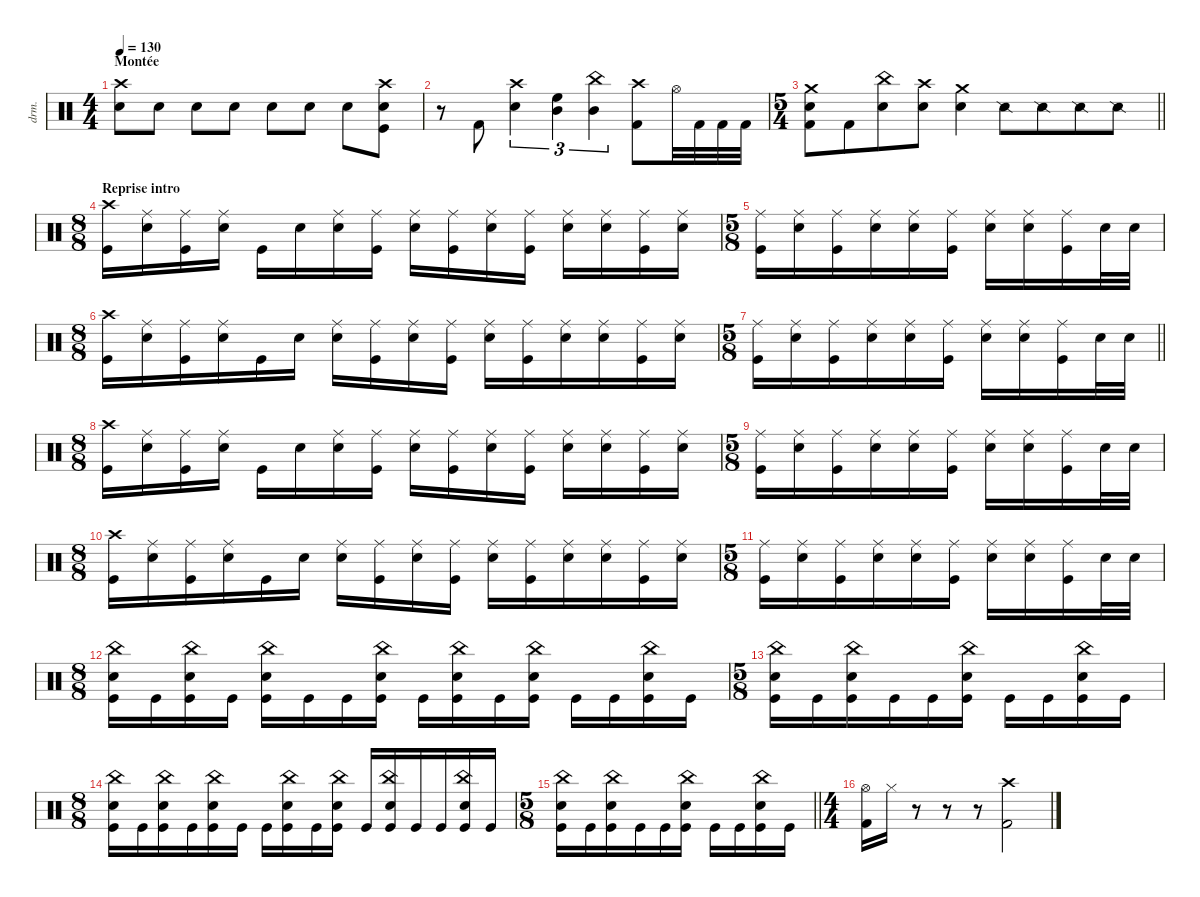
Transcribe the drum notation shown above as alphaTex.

\defaultSystemsLayout 4
\hideDynamics
\bracketExtendMode nobrackets
\track ("Manouche" "drm.") {instrument percussion}
\staff {score}
\articulation defaults
\ts (4 4)
\section ("" "Montée")
\tempo 130
\clef neutral
\ks c
("Crash high (hit)" "Snare (hit) 2").8{dy mf beam Down} "Snare (hit) 2".8{dy mp beam Down} "Snare (hit) 2".8{beam Down} "Snare (hit) 2".8{beam Down} "Snare (hit) 2".8{dy mf beam Down} "Snare (hit) 2".8{beam Down} "Snare (hit) 2".8{dy f beam Down} ("Crash high (hit)" "Kick (hit)" "Snare (hit) 2").8{beam Down} |
r.8{beam Down} "Kick (hit) 2".8{dy ff beam Up} ("Snare (hit) 2" "Crash high (hit)").4{tu (3 2) beam Down} ("Mid Tom (hit)" "High Floor Tom (hit)").4{tu (3 2) beam Down} ("Mid Tom (hit)" "China (hit)").4{tu (3 2) beam Down} ("Crash high (hit)" "Kick (hit) 2").8{dy f beam Down} "Hi-Hat (open)".32{dy ff beam Down} "Kick (hit) 2".32{dy f beam Down} "Kick (hit) 2".32{beam Down} "Kick (hit) 2".32{beam Down} |
\ts (5 4)
\beaming (8 6 4)
\barLineRight lightlight
("Kick (hit) 2" "Snare (hit) 2" "Crash medium (hit)").8{dy ff beam Down} "Kick (hit) 2".8{dy f beam Down} ("Snare (hit) 2" "China (hit)").8{beam Down} ("Snare (hit) 2" "Crash high (hit)").8{beam Down} ("Snare (hit) 2" "Crash medium (hit)").4{beam Down} "Snare (side stick) 2".8{beam Down} "Snare (side stick) 2".8{beam Down} "Snare (side stick) 2".8{beam Down} "Snare (side stick) 2".8{beam Down} |
\ts (8 8)
\beaming (8 2 2 2 2)
\section ("" "Reprise intro")
("Crash high (hit)" "Kick (hit)").16{beam Down} ("Snare (hit) 2" "Ride (middle)").16{beam Down} ("Kick (hit)" "Ride (middle)").16{beam Down} ("Snare (hit) 2" "Ride (middle)").16{beam Down} "Kick (hit)".16{beam Down} "Snare (hit) 2".16{beam Down} ("Snare (hit) 2" "Ride (middle)").16{beam Down} ("Kick (hit)" "Ride (middle)").16{beam Down} ("Snare (hit) 2" "Ride (middle)").16{beam Down} ("Kick (hit)" "Ride (middle)").16{beam Down} ("Snare (hit) 2" "Ride (middle)").16{beam Down} ("Ride (middle)" "Kick (hit)").16{beam Down} ("Snare (hit) 2" "Ride (middle)").16{beam Down} ("Snare (hit) 2" "Ride (middle)").16{beam Down} ("Kick (hit)" "Ride (middle)").16{beam Down} ("Snare (hit) 2" "Ride (middle)").16{beam Down} |
\ts (5 8)
\beaming (8 3 2)
("Kick (hit)" "Ride (middle)").16{beam Down} ("Snare (hit) 2" "Ride (middle)").16{beam Down} ("Kick (hit)" "Ride (middle)").16{beam Down} ("Snare (hit) 2" "Ride (middle)").16{beam Down} ("Snare (hit) 2" "Ride (middle)").16{beam Down} ("Kick (hit)" "Ride (middle)").16{beam Down} ("Snare (hit) 2" "Ride (middle)").16{beam Down} ("Snare (hit) 2" "Ride (middle)").16{beam Down} ("Kick (hit)" "Ride (middle)").16{beam Down} "Snare (hit) 2".32{beam Down} "Snare (hit) 2".32{beam Down} |
\ts (8 8)
\beaming (8 3 2 3)
("Crash high (hit)" "Kick (hit)").16{beam Down} ("Snare (hit) 2" "Ride (middle)").16{beam Down} ("Kick (hit)" "Ride (middle)").16{beam Down} ("Snare (hit) 2" "Ride (middle)").16{beam Down} "Kick (hit)".16{beam Down} "Snare (hit) 2".16{beam Down} ("Snare (hit) 2" "Ride (middle)").16{beam Down} ("Kick (hit)" "Ride (middle)").16{beam Down} ("Snare (hit) 2" "Ride (middle)").16{beam Down} ("Kick (hit)" "Ride (middle)").16{beam Down} ("Snare (hit) 2" "Ride (middle)").16{beam Down} ("Ride (middle)" "Kick (hit)").16{beam Down} ("Snare (hit) 2" "Ride (middle)").16{beam Down} ("Snare (hit) 2" "Ride (middle)").16{beam Down} ("Kick (hit)" "Ride (middle)").16{beam Down} ("Snare (hit) 2" "Ride (middle)").16{beam Down} |
\ts (5 8)
\beaming (8 3 2)
\barLineRight lightlight
("Kick (hit)" "Ride (middle)").16{beam Down} ("Snare (hit) 2" "Ride (middle)").16{beam Down} ("Kick (hit)" "Ride (middle)").16{beam Down} ("Snare (hit) 2" "Ride (middle)").16{beam Down} ("Snare (hit) 2" "Ride (middle)").16{beam Down} ("Kick (hit)" "Ride (middle)").16{beam Down} ("Snare (hit) 2" "Ride (middle)").16{beam Down} ("Snare (hit) 2" "Ride (middle)").16{beam Down} ("Kick (hit)" "Ride (middle)").16{beam Down} "Snare (hit) 2".32{beam Down} "Snare (hit) 2".32{beam Down} |
\ts (8 8)
\beaming (8 2 2 2 2)
("Crash high (hit)" "Kick (hit)").16{beam Down} ("Snare (hit) 2" "Ride (middle)").16{beam Down} ("Kick (hit)" "Ride (middle)").16{beam Down} ("Snare (hit) 2" "Ride (middle)").16{beam Down} "Kick (hit)".16{beam Down} "Snare (hit) 2".16{beam Down} ("Snare (hit) 2" "Ride (middle)").16{beam Down} ("Kick (hit)" "Ride (middle)").16{beam Down} ("Snare (hit) 2" "Ride (middle)").16{beam Down} ("Kick (hit)" "Ride (middle)").16{beam Down} ("Snare (hit) 2" "Ride (middle)").16{beam Down} ("Ride (middle)" "Kick (hit)").16{beam Down} ("Snare (hit) 2" "Ride (middle)").16{beam Down} ("Snare (hit) 2" "Ride (middle)").16{beam Down} ("Kick (hit)" "Ride (middle)").16{beam Down} ("Snare (hit) 2" "Ride (middle)").16{beam Down} |
\ts (5 8)
\beaming (8 3 2)
("Kick (hit)" "Ride (middle)").16{beam Down} ("Snare (hit) 2" "Ride (middle)").16{beam Down} ("Kick (hit)" "Ride (middle)").16{beam Down} ("Snare (hit) 2" "Ride (middle)").16{beam Down} ("Snare (hit) 2" "Ride (middle)").16{beam Down} ("Kick (hit)" "Ride (middle)").16{beam Down} ("Snare (hit) 2" "Ride (middle)").16{beam Down} ("Snare (hit) 2" "Ride (middle)").16{beam Down} ("Kick (hit)" "Ride (middle)").16{beam Down} "Snare (hit) 2".32{beam Down} "Snare (hit) 2".32{beam Down} |
\ts (8 8)
\beaming (8 3 2 3)
("Crash high (hit)" "Kick (hit)").16{beam Down} ("Snare (hit) 2" "Ride (middle)").16{beam Down} ("Kick (hit)" "Ride (middle)").16{beam Down} ("Snare (hit) 2" "Ride (middle)").16{beam Down} "Kick (hit)".16{beam Down} "Snare (hit) 2".16{beam Down} ("Snare (hit) 2" "Ride (middle)").16{beam Down} ("Kick (hit)" "Ride (middle)").16{beam Down} ("Snare (hit) 2" "Ride (middle)").16{beam Down} ("Kick (hit)" "Ride (middle)").16{beam Down} ("Snare (hit) 2" "Ride (middle)").16{beam Down} ("Ride (middle)" "Kick (hit)").16{beam Down} ("Snare (hit) 2" "Ride (middle)").16{beam Down} ("Snare (hit) 2" "Ride (middle)").16{beam Down} ("Kick (hit)" "Ride (middle)").16{beam Down} ("Snare (hit) 2" "Ride (middle)").16{beam Down} |
\ts (5 8)
\beaming (8 3 2)
("Kick (hit)" "Ride (middle)").16{beam Down} ("Snare (hit) 2" "Ride (middle)").16{beam Down} ("Kick (hit)" "Ride (middle)").16{beam Down} ("Snare (hit) 2" "Ride (middle)").16{beam Down} ("Snare (hit) 2" "Ride (middle)").16{beam Down} ("Kick (hit)" "Ride (middle)").16{beam Down} ("Snare (hit) 2" "Ride (middle)").16{beam Down} ("Snare (hit) 2" "Ride (middle)").16{beam Down} ("Kick (hit)" "Ride (middle)").16{beam Down} "Snare (hit) 2".32{beam Down} "Snare (hit) 2".32{beam Down} |
\ts (8 8)
\beaming (8 2 2 2 2)
("Snare (hit) 2" "China (hit)" "Kick (hit)").16{beam Down} "Kick (hit)".16{beam Down} ("Kick (hit)" "Snare (hit) 2" "China (hit)").16{beam Down} "Kick (hit)".16{beam Down} ("Kick (hit)" "Snare (hit) 2" "China (hit)").16{beam Down} "Kick (hit)".16{beam Down} "Kick (hit)".16{beam Down} ("Kick (hit)" "Snare (hit) 2" "China (hit)").16{beam Down} "Kick (hit)".16{beam Down} ("Kick (hit)" "Snare (hit) 2" "China (hit)").16{beam Down} "Kick (hit)".16{beam Down} ("Kick (hit)" "Snare (hit) 2" "China (hit)").16{beam Down} "Kick (hit)".16{beam Down} "Kick (hit)".16{beam Down} ("Kick (hit)" "Snare (hit) 2" "China (hit)").16{beam Down} "Kick (hit)".16{beam Down} |
\ts (5 8)
\beaming (8 3 2)
("Kick (hit)" "Snare (hit) 2" "China (hit)").16{beam Down} "Kick (hit)".16{beam Down} ("Kick (hit)" "Snare (hit) 2" "China (hit)").16{beam Down} "Kick (hit)".16{beam Down} "Kick (hit)".16{beam Down} ("Kick (hit)" "Snare (hit) 2" "China (hit)").16{beam Down} "Kick (hit)".16{beam Down} "Kick (hit)".16{beam Down} ("Kick (hit)" "Snare (hit) 2" "China (hit)").16{beam Down} "Kick (hit)".16{beam Down} |
\ts (8 8)
\beaming (8 3 2 3)
("Snare (hit) 2" "China (hit)" "Kick (hit)").16{beam Down} "Kick (hit)".16{beam Down} ("Kick (hit)" "Snare (hit) 2" "China (hit)").16{beam Down} "Kick (hit)".16{beam Down} ("Kick (hit)" "Snare (hit) 2" "China (hit)").16{beam Down} "Kick (hit)".16{beam Down} "Kick (hit)".16{beam Down} ("Kick (hit)" "Snare (hit) 2" "China (hit)").16{beam Down} "Kick (hit)".16{beam Down} ("Kick (hit)" "Snare (hit) 2" "China (hit)").16{beam Down} "Kick (hit)".16{beam Up} ("Kick (hit)" "Snare (hit) 2" "China (hit)").16{beam Up} "Kick (hit)".16{beam Up} "Kick (hit)".16{beam Up} ("Kick (hit)" "Snare (hit) 2" "China (hit)").16{beam Up} "Kick (hit)".16{beam Up} |
\ts (5 8)
\beaming (8 3 2)
\barLineRight lightlight
("Kick (hit)" "Snare (hit) 2" "China (hit)").16{beam Down} "Kick (hit)".16{beam Down} ("Kick (hit)" "Snare (hit) 2" "China (hit)").16{beam Down} "Kick (hit)".16{beam Down} "Kick (hit)".16{beam Down} ("Kick (hit)" "Snare (hit) 2" "China (hit)").16{beam Down} "Kick (hit)".16{beam Down} "Kick (hit)".16{beam Down} ("Kick (hit)" "Snare (hit) 2" "China (hit)").16{beam Down} "Kick (hit)".16{beam Down} |
\ts (4 4)
\beaming (8 2 2 2 2)
("Kick (hit) 2" "Hi-Hat (open)").16{beam Down} "Hi-Hat (closed)".16{beam Down} r.8{beam Down} r.8{beam Down} r.8{beam Down} ("Kick (hit) 2" "Crash high (hit)").2{dy ff beam Down}
